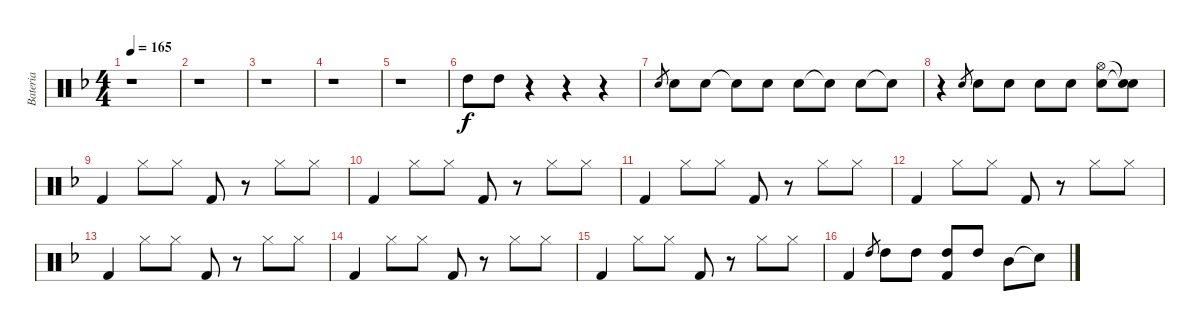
\track ("Bateria" "Bateria") {instrument percussion}
\staff {score}
\articulation defaults
\ts (4 4)
\tempo 165
\clef neutral
\ks dminor
r.1{dy f} |
r.1 |
r.1 |
r.1 |
r.1 |
"High Tom (hit)".8 "High Tom (hit)".8 r.4 r.4 r.4 |
"Electric Snare (hit)".8{gr} "Electric Snare (hit)".8 "Electric Snare (hit)".8 "Snare (hit)"{t}.8 "Snare (hit) 2".8 "Snare (hit) 2".8 "Snare (hit)"{t}.8 "Electric Snare (hit)".8 "Snare (hit)"{t}.8 |
r.4 "Electric Snare (hit)".8{gr} "Electric Snare (hit)".8 "Snare (hit) 2".8 "Snare (hit) 2".8 "Snare (hit) 2".8 ("Hi-Hat (open)" "Electric Snare (hit)").8 ("Snare (hit)"{t} "Snare (hit)"{t}).8 |
"Kick (hit) 2".4 "Hi-Hat (closed)".8 "Hi-Hat (closed)".8 "Kick (hit) 2".8 r.8 "Hi-Hat (closed)".8 "Hi-Hat (closed)".8 |
"Kick (hit) 2".4 "Hi-Hat (closed)".8 "Hi-Hat (closed)".8 "Kick (hit) 2".8 r.8 "Hi-Hat (closed)".8 "Hi-Hat (closed)".8 |
"Kick (hit) 2".4 "Hi-Hat (closed)".8 "Hi-Hat (closed)".8 "Kick (hit) 2".8 r.8 "Hi-Hat (closed)".8 "Hi-Hat (closed)".8 |
"Kick (hit) 2".4 "Hi-Hat (closed)".8 "Hi-Hat (closed)".8 "Kick (hit) 2".8 r.8 "Hi-Hat (closed)".8 "Hi-Hat (closed)".8 |
"Kick (hit) 2".4 "Hi-Hat (closed)".8 "Hi-Hat (closed)".8 "Kick (hit) 2".8 r.8 "Hi-Hat (closed)".8 "Hi-Hat (closed)".8 |
"Kick (hit) 2".4 "Hi-Hat (closed)".8 "Hi-Hat (closed)".8 "Kick (hit) 2".8 r.8 "Hi-Hat (closed)".8 "Hi-Hat (closed)".8 |
"Kick (hit) 2".4 "Hi-Hat (closed)".8 "Hi-Hat (closed)".8 "Kick (hit) 2".8 r.8 "Hi-Hat (closed)".8 "Hi-Hat (closed)".8 |
"Kick (hit) 2".4 "High Tom (hit)".8{gr} "High Tom (hit)".8 "High Tom (hit)".8 ("High Tom (hit)" "Kick (hit) 2").8 "High Tom (hit)".8 "Mid Tom (hit)".8 "Snare (hit)"{t}.8
